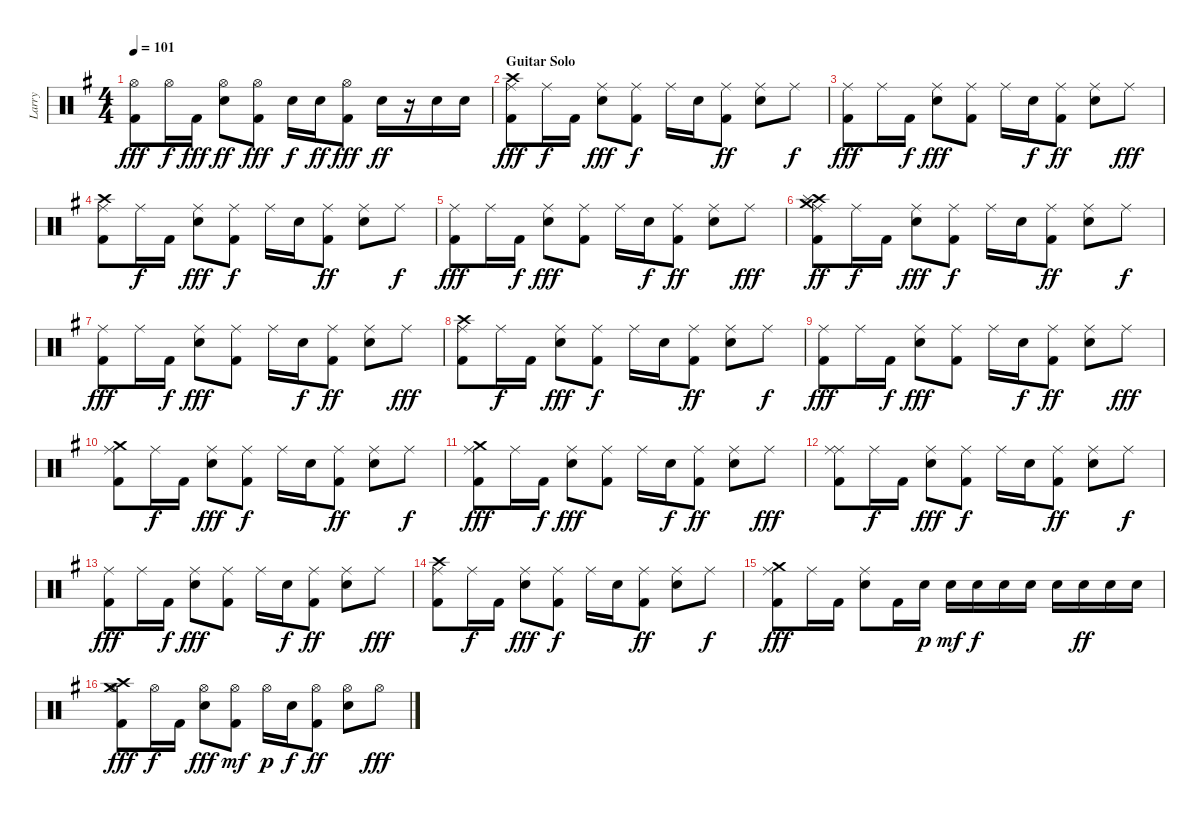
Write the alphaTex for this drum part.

\track ("Larry" "Larry") {instrument percussion}
\staff {score}
\articulation defaults
\ts (4 4)
\tempo 101
\clef neutral
\ks eminor
("Hi-Hat (open)" "Kick (hit) 2").8{dy fff} "Hi-Hat (open)".16{dy f} "Kick (hit) 2".16{dy fff} ("Hi-Hat (open)" "Snare (hit) 2").8{dy ff} ("Hi-Hat (open)" "Kick (hit) 2").8{dy fff} "Snare (hit) 2".16{dy f} "Snare (hit) 2".16{dy ff} ("Hi-Hat (open)" "Kick (hit) 2").8{dy fff} "Snare (hit) 2".16{dy ff} r.16 "Snare (hit) 2".16 "Snare (hit) 2".16 |
\section ("" "Guitar Solo")
("Ride (middle)" "Kick (hit) 2" "Crash high (hit)").8{dy fff} "Ride (middle)".16{dy f} "Kick (hit) 2".16 ("Ride (middle)" "Snare (hit) 2").8{dy fff} ("Ride (middle)" "Kick (hit) 2").8{dy f} "Ride (middle)".16 "Snare (hit) 2".16 ("Ride (middle)" "Kick (hit) 2").8{dy ff} ("Ride (middle)" "Snare (hit) 2").8 "Ride (middle)".8{dy f} |
("Ride (middle)" "Kick (hit) 2").8{dy fff} "Ride (middle)".16 "Kick (hit) 2".16{dy f} ("Ride (middle)" "Snare (hit) 2").8{dy fff} ("Ride (middle)" "Kick (hit) 2").8 "Ride (middle)".16 "Snare (hit) 2".16{dy f} ("Ride (middle)" "Kick (hit) 2").8{dy ff} ("Ride (middle)" "Snare (hit) 2").8 "Ride (middle)".8{dy fff} |
("Ride (middle)" "Kick (hit) 2" "Crash high (hit)").8 "Ride (middle)".16{dy f} "Kick (hit) 2".16 ("Ride (middle)" "Snare (hit) 2").8{dy fff} ("Ride (middle)" "Kick (hit) 2").8{dy f} "Ride (middle)".16 "Snare (hit) 2".16 ("Ride (middle)" "Kick (hit) 2").8{dy ff} ("Ride (middle)" "Snare (hit) 2").8 "Ride (middle)".8{dy f} |
("Ride (middle)" "Kick (hit) 2").8{dy fff} "Ride (middle)".16 "Kick (hit) 2".16{dy f} ("Ride (middle)" "Snare (hit) 2").8{dy fff} ("Ride (middle)" "Kick (hit) 2").8 "Ride (middle)".16 "Snare (hit) 2".16{dy f} ("Ride (middle)" "Kick (hit) 2").8{dy ff} ("Ride (middle)" "Snare (hit) 2").8 "Ride (middle)".8{dy fff} |
("Ride (middle)" "Kick (hit) 2" "Crash high (hit)" "Crash medium (hit)" "Splash (hit)").8{dy ff} "Ride (middle)".16{dy f} "Kick (hit) 2".16 ("Ride (middle)" "Snare (hit) 2").8{dy fff} ("Ride (middle)" "Kick (hit) 2").8{dy f} "Ride (middle)".16 "Snare (hit) 2".16 ("Ride (middle)" "Kick (hit) 2").8{dy ff} ("Ride (middle)" "Snare (hit) 2").8 "Ride (middle)".8{dy f} |
("Ride (middle)" "Kick (hit) 2").8{dy fff} "Ride (middle)".16 "Kick (hit) 2".16{dy f} ("Ride (middle)" "Snare (hit) 2").8{dy fff} ("Ride (middle)" "Kick (hit) 2").8 "Ride (middle)".16 "Snare (hit) 2".16{dy f} ("Ride (middle)" "Kick (hit) 2").8{dy ff} ("Ride (middle)" "Snare (hit) 2").8 "Ride (middle)".8{dy fff} |
("Ride (middle)" "Kick (hit) 2" "Crash high (hit)").8 "Ride (middle)".16{dy f} "Kick (hit) 2".16 ("Ride (middle)" "Snare (hit) 2").8{dy fff} ("Ride (middle)" "Kick (hit) 2").8{dy f} "Ride (middle)".16 "Snare (hit) 2".16 ("Ride (middle)" "Kick (hit) 2").8{dy ff} ("Ride (middle)" "Snare (hit) 2").8 "Ride (middle)".8{dy f} |
("Ride (middle)" "Kick (hit) 2").8{dy fff} "Ride (middle)".16 "Kick (hit) 2".16{dy f} ("Ride (middle)" "Snare (hit) 2").8{dy fff} ("Ride (middle)" "Kick (hit) 2").8 "Ride (middle)".16 "Snare (hit) 2".16{dy f} ("Ride (middle)" "Kick (hit) 2").8{dy ff} ("Ride (middle)" "Snare (hit) 2").8 "Ride (middle)".8{dy fff} |
("Ride (middle)" "Kick (hit) 2" "Crash medium (hit)").8 "Ride (middle)".16{dy f} "Kick (hit) 2".16 ("Ride (middle)" "Snare (hit) 2").8{dy fff} ("Ride (middle)" "Kick (hit) 2").8{dy f} "Ride (middle)".16 "Snare (hit) 2".16 ("Ride (middle)" "Kick (hit) 2").8{dy ff} ("Ride (middle)" "Snare (hit) 2").8 "Ride (middle)".8{dy f} |
("Ride (middle)" "Kick (hit) 2" "Crash medium (hit)").8{dy fff} "Ride (middle)".16 "Kick (hit) 2".16{dy f} ("Ride (middle)" "Snare (hit) 2").8{dy fff} ("Ride (middle)" "Kick (hit) 2").8 "Ride (middle)".16 "Snare (hit) 2".16{dy f} ("Ride (middle)" "Kick (hit) 2").8{dy ff} ("Ride (middle)" "Snare (hit) 2").8 "Ride (middle)".8{dy fff} |
("Ride (middle)" "Ride (middle)" "Kick (hit) 2").8 "Ride (middle)".16{dy f} "Kick (hit) 2".16 ("Ride (middle)" "Snare (hit) 2").8{dy fff} ("Ride (middle)" "Kick (hit) 2").8{dy f} "Ride (middle)".16 "Snare (hit) 2".16 ("Ride (middle)" "Kick (hit) 2").8{dy ff} ("Ride (middle)" "Snare (hit) 2").8 "Ride (middle)".8{dy f} |
("Ride (middle)" "Kick (hit) 2").8{dy fff} "Ride (middle)".16 "Kick (hit) 2".16{dy f} ("Ride (middle)" "Snare (hit) 2").8{dy fff} ("Ride (middle)" "Kick (hit) 2").8 "Ride (middle)".16 "Snare (hit) 2".16{dy f} ("Ride (middle)" "Kick (hit) 2").8{dy ff} ("Ride (middle)" "Snare (hit) 2").8 "Ride (middle)".8{dy fff} |
("Ride (middle)" "Kick (hit) 2" "Crash high (hit)").8 "Ride (middle)".16{dy f} "Kick (hit) 2".16 ("Ride (middle)" "Snare (hit) 2").8{dy fff} ("Ride (middle)" "Kick (hit) 2").8{dy f} "Ride (middle)".16 "Snare (hit) 2".16 ("Ride (middle)" "Kick (hit) 2").8{dy ff} ("Ride (middle)" "Snare (hit) 2").8 "Ride (middle)".8{dy f} |
("Crash medium (hit)" "Ride (middle)" "Kick (hit) 2").8{dy fff} "Ride (middle)".16 "Kick (hit) 2".16 ("Ride (middle)" "Snare (hit) 2").8 "Kick (hit) 2".16 "Snare (hit) 2".16{dy p} "Snare (hit) 2".16{dy mf} "Snare (hit) 2".16{dy f} "Snare (hit) 2".16 "Snare (hit) 2".16 "Snare (hit) 2".16 "Snare (hit) 2".16{dy ff} "Snare (hit) 2".16 "Snare (hit) 2".16 |
("Hi-Hat (open)" "Crash high (hit)" "Crash medium (hit)" "Kick (hit) 2").8{dy fff} "Hi-Hat (open)".16{dy f} "Kick (hit) 2".16 ("Hi-Hat (open)" "Snare (hit) 2").8{dy fff} ("Hi-Hat (open)" "Kick (hit) 2").8{dy mf} "Hi-Hat (open)".16{dy p} "Snare (hit) 2".16{dy f} ("Hi-Hat (open)" "Kick (hit) 2").8{dy ff} ("Hi-Hat (open)" "Snare (hit) 2").8 "Hi-Hat (open)".8{dy fff}
